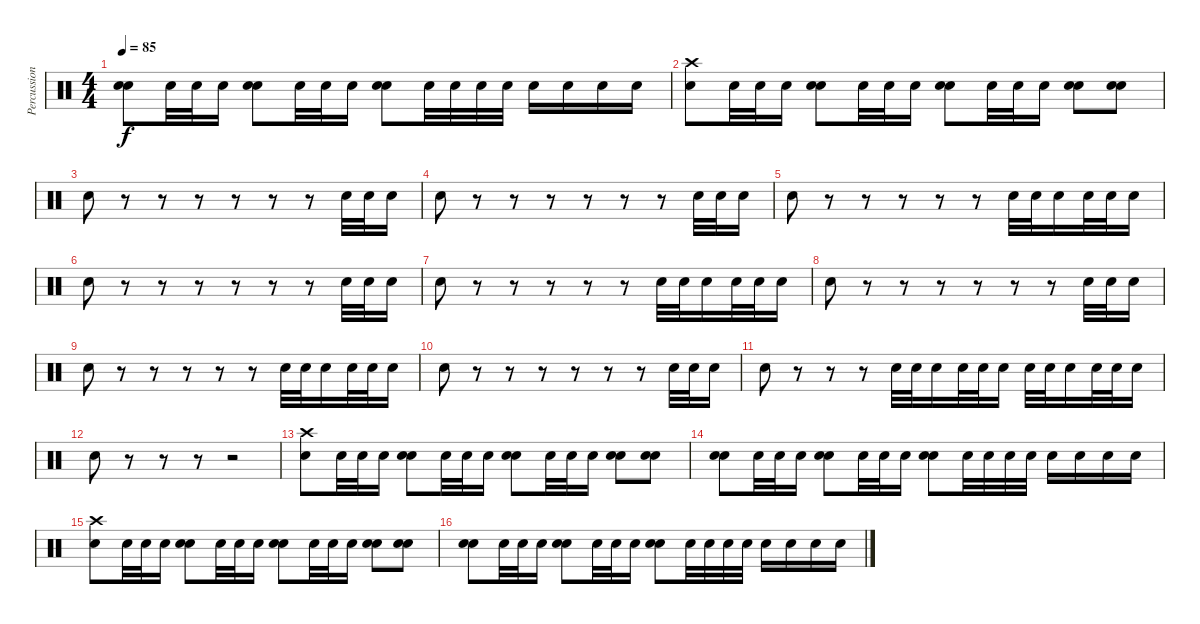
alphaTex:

\track ("Percussion" "Percussion") {instrument percussion}
\staff {score}
\articulation defaults
\ts (4 4)
\tempo 85
\clef neutral
\ks c
("Electric Snare (hit)" "Electric Snare (hit)").8{dy f} "Electric Snare (hit)".32 "Electric Snare (hit)".32 "Electric Snare (hit)".16 ("Electric Snare (hit)" "Electric Snare (hit)").8 "Electric Snare (hit)".32 "Electric Snare (hit)".32 "Electric Snare (hit)".16 ("Electric Snare (hit)" "Electric Snare (hit)").8 "Electric Snare (hit)".32 "Electric Snare (hit)".32 "Electric Snare (hit)".32 "Electric Snare (hit)".32 "Electric Snare (hit)".16 "Electric Snare (hit)".16 "Electric Snare (hit)".16 "Electric Snare (hit)".16 |
("Crash high (hit)" "Electric Snare (hit)").8 "Electric Snare (hit)".32 "Electric Snare (hit)".32 "Electric Snare (hit)".16 ("Electric Snare (hit)" "Electric Snare (hit)").8 "Electric Snare (hit)".32 "Electric Snare (hit)".32 "Electric Snare (hit)".16 ("Electric Snare (hit)" "Electric Snare (hit)").8 "Electric Snare (hit)".32 "Electric Snare (hit)".32 "Electric Snare (hit)".16 ("Electric Snare (hit)" "Electric Snare (hit)").8 ("Electric Snare (hit)" "Electric Snare (hit)").8 |
"Electric Snare (hit)".8 r.8 r.8 r.8 r.8 r.8 r.8 "Electric Snare (hit)".32 "Electric Snare (hit)".32 "Electric Snare (hit)".16 |
"Electric Snare (hit)".8 r.8 r.8 r.8 r.8 r.8 r.8 "Electric Snare (hit)".32 "Electric Snare (hit)".32 "Electric Snare (hit)".16 |
"Electric Snare (hit)".8 r.8 r.8 r.8 r.8 r.8 "Electric Snare (hit)".32 "Electric Snare (hit)".32 "Electric Snare (hit)".16 "Electric Snare (hit)".32 "Electric Snare (hit)".32 "Electric Snare (hit)".16 |
"Electric Snare (hit)".8 r.8 r.8 r.8 r.8 r.8 r.8 "Electric Snare (hit)".32 "Electric Snare (hit)".32 "Electric Snare (hit)".16 |
"Electric Snare (hit)".8 r.8 r.8 r.8 r.8 r.8 "Electric Snare (hit)".32 "Electric Snare (hit)".32 "Electric Snare (hit)".16 "Electric Snare (hit)".32 "Electric Snare (hit)".32 "Electric Snare (hit)".16 |
"Electric Snare (hit)".8 r.8 r.8 r.8 r.8 r.8 r.8 "Electric Snare (hit)".32 "Electric Snare (hit)".32 "Electric Snare (hit)".16 |
"Electric Snare (hit)".8 r.8 r.8 r.8 r.8 r.8 "Electric Snare (hit)".32 "Electric Snare (hit)".32 "Electric Snare (hit)".16 "Electric Snare (hit)".32 "Electric Snare (hit)".32 "Electric Snare (hit)".16 |
"Electric Snare (hit)".8 r.8 r.8 r.8 r.8 r.8 r.8 "Electric Snare (hit)".32 "Electric Snare (hit)".32 "Electric Snare (hit)".16 |
"Electric Snare (hit)".8 r.8 r.8 r.8 "Electric Snare (hit)".32 "Electric Snare (hit)".32 "Electric Snare (hit)".16 "Electric Snare (hit)".32 "Electric Snare (hit)".32 "Electric Snare (hit)".16 "Electric Snare (hit)".32 "Electric Snare (hit)".32 "Electric Snare (hit)".16 "Electric Snare (hit)".32 "Electric Snare (hit)".32 "Electric Snare (hit)".16 |
"Electric Snare (hit)".8 r.8 r.8 r.8 r.2 |
("Crash high (hit)" "Electric Snare (hit)").8 "Electric Snare (hit)".32 "Electric Snare (hit)".32 "Electric Snare (hit)".16 ("Electric Snare (hit)" "Electric Snare (hit)").8 "Electric Snare (hit)".32 "Electric Snare (hit)".32 "Electric Snare (hit)".16 ("Electric Snare (hit)" "Electric Snare (hit)").8 "Electric Snare (hit)".32 "Electric Snare (hit)".32 "Electric Snare (hit)".16 ("Electric Snare (hit)" "Electric Snare (hit)").8 ("Electric Snare (hit)" "Electric Snare (hit)").8 |
("Electric Snare (hit)" "Electric Snare (hit)").8 "Electric Snare (hit)".32 "Electric Snare (hit)".32 "Electric Snare (hit)".16 ("Electric Snare (hit)" "Electric Snare (hit)").8 "Electric Snare (hit)".32 "Electric Snare (hit)".32 "Electric Snare (hit)".16 ("Electric Snare (hit)" "Electric Snare (hit)").8 "Electric Snare (hit)".32 "Electric Snare (hit)".32 "Electric Snare (hit)".32 "Electric Snare (hit)".32 "Electric Snare (hit)".16 "Electric Snare (hit)".16 "Electric Snare (hit)".16 "Electric Snare (hit)".16 |
("Crash high (hit)" "Electric Snare (hit)").8 "Electric Snare (hit)".32 "Electric Snare (hit)".32 "Electric Snare (hit)".16 ("Electric Snare (hit)" "Electric Snare (hit)").8 "Electric Snare (hit)".32 "Electric Snare (hit)".32 "Electric Snare (hit)".16 ("Electric Snare (hit)" "Electric Snare (hit)").8 "Electric Snare (hit)".32 "Electric Snare (hit)".32 "Electric Snare (hit)".16 ("Electric Snare (hit)" "Electric Snare (hit)").8 ("Electric Snare (hit)" "Electric Snare (hit)").8 |
("Electric Snare (hit)" "Electric Snare (hit)").8 "Electric Snare (hit)".32 "Electric Snare (hit)".32 "Electric Snare (hit)".16 ("Electric Snare (hit)" "Electric Snare (hit)").8 "Electric Snare (hit)".32 "Electric Snare (hit)".32 "Electric Snare (hit)".16 ("Electric Snare (hit)" "Electric Snare (hit)").8 "Electric Snare (hit)".32 "Electric Snare (hit)".32 "Electric Snare (hit)".32 "Electric Snare (hit)".32 "Electric Snare (hit)".16 "Electric Snare (hit)".16 "Electric Snare (hit)".16 "Electric Snare (hit)".16
